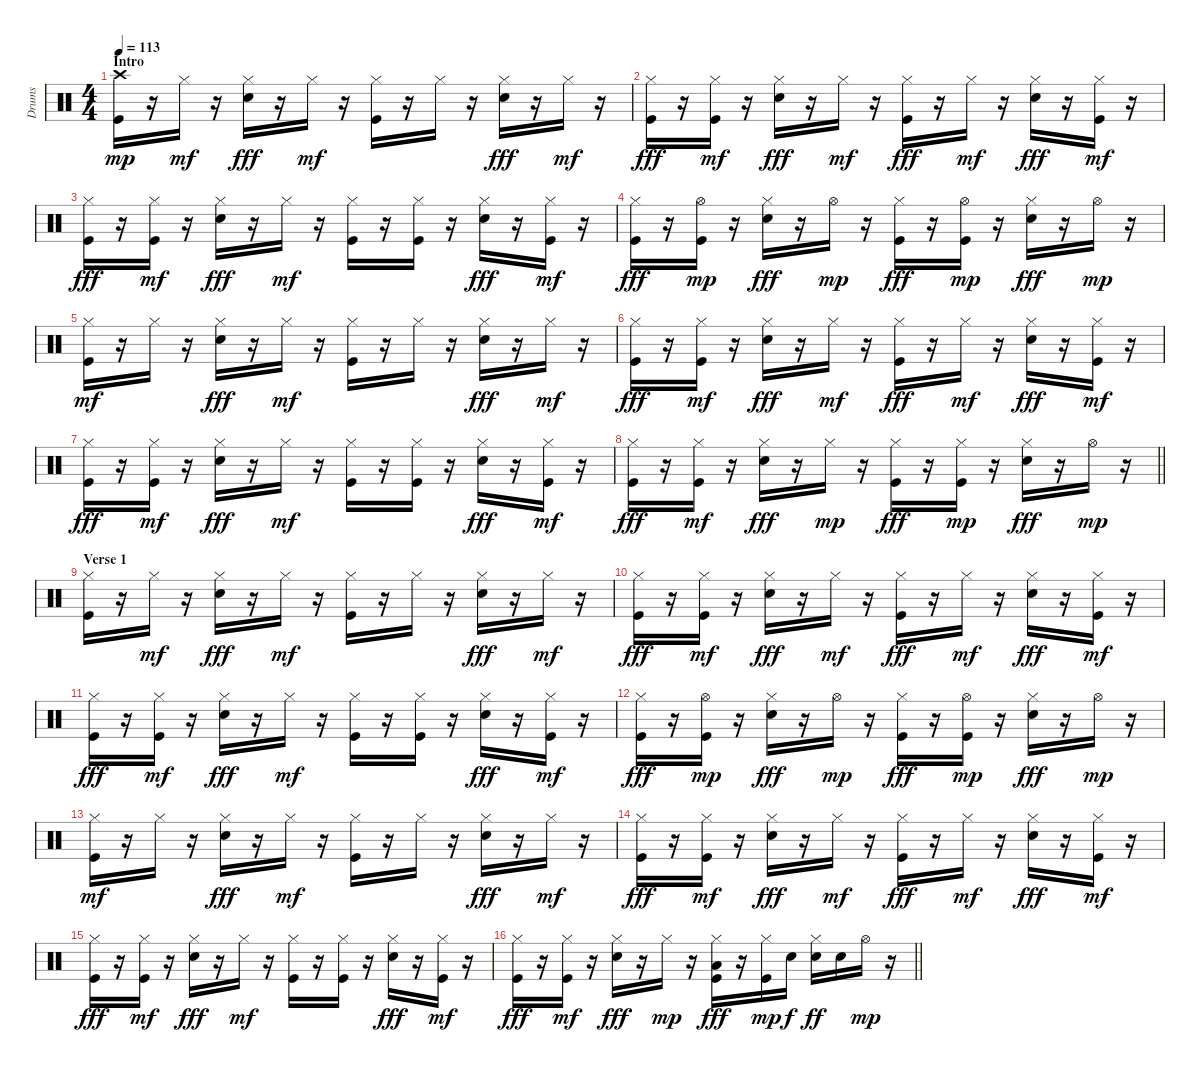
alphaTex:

\track ("Drums" "Drums") {instrument percussion}
\staff {score}
\articulation defaults
\ts (4 4)
\section ("" "Intro")
\tempo 113
\clef neutral
\ks c
("Kick (hit)" "Crash high (hit)").16{dy mp} r.16 "Hi-Hat (closed)".16{dy mf} r.16 ("Electric Snare (hit)" "Hi-Hat (closed)").16{dy fff} r.16 "Hi-Hat (closed)".16{dy mf} r.16 ("Kick (hit)" "Hi-Hat (closed)").16 r.16 "Hi-Hat (closed)".16 r.16 ("Electric Snare (hit)" "Hi-Hat (closed)").16{dy fff} r.16 "Hi-Hat (closed)".16{dy mf} r.16 |
("Kick (hit)" "Hi-Hat (closed)").16{dy fff} r.16 ("Kick (hit)" "Hi-Hat (closed)").16{dy mf} r.16 ("Electric Snare (hit)" "Hi-Hat (closed)").16{dy fff} r.16 "Hi-Hat (closed)".16{dy mf} r.16 ("Kick (hit)" "Hi-Hat (closed)").16{dy fff} r.16 "Hi-Hat (closed)".16{dy mf} r.16 ("Electric Snare (hit)" "Hi-Hat (closed)").16{dy fff} r.16 ("Kick (hit)" "Hi-Hat (closed)").16{dy mf} r.16 |
("Kick (hit)" "Hi-Hat (closed)").16{dy fff} r.16 ("Kick (hit)" "Hi-Hat (closed)").16{dy mf} r.16 ("Electric Snare (hit)" "Hi-Hat (closed)").16{dy fff} r.16 "Hi-Hat (closed)".16{dy mf} r.16 ("Kick (hit)" "Hi-Hat (closed)").16 r.16 ("Kick (hit)" "Hi-Hat (closed)").16 r.16 ("Electric Snare (hit)" "Hi-Hat (closed)").16{dy fff} r.16 ("Kick (hit)" "Hi-Hat (closed)").16{dy mf} r.16 |
("Kick (hit)" "Hi-Hat (closed)").16{dy fff} r.16 ("Kick (hit)" "Hi-Hat (open)").16{dy mp} r.16 ("Electric Snare (hit)" "Hi-Hat (closed)").16{dy fff} r.16 "Hi-Hat (open)".16{dy mp} r.16 ("Kick (hit)" "Hi-Hat (closed)").16{dy fff} r.16 ("Kick (hit)" "Hi-Hat (open)").16{dy mp} r.16 ("Electric Snare (hit)" "Hi-Hat (closed)").16{dy fff} r.16 "Hi-Hat (open)".16{dy mp} r.16 |
("Kick (hit)" "Hi-Hat (closed)").16{dy mf} r.16 "Hi-Hat (closed)".16 r.16 ("Electric Snare (hit)" "Hi-Hat (closed)").16{dy fff} r.16 "Hi-Hat (closed)".16{dy mf} r.16 ("Kick (hit)" "Hi-Hat (closed)").16 r.16 "Hi-Hat (closed)".16 r.16 ("Electric Snare (hit)" "Hi-Hat (closed)").16{dy fff} r.16 "Hi-Hat (closed)".16{dy mf} r.16 |
("Kick (hit)" "Hi-Hat (closed)").16{dy fff} r.16 ("Kick (hit)" "Hi-Hat (closed)").16{dy mf} r.16 ("Electric Snare (hit)" "Hi-Hat (closed)").16{dy fff} r.16 "Hi-Hat (closed)".16{dy mf} r.16 ("Kick (hit)" "Hi-Hat (closed)").16{dy fff} r.16 "Hi-Hat (closed)".16{dy mf} r.16 ("Electric Snare (hit)" "Hi-Hat (closed)").16{dy fff} r.16 ("Kick (hit)" "Hi-Hat (closed)").16{dy mf} r.16 |
("Kick (hit)" "Hi-Hat (closed)").16{dy fff} r.16 ("Kick (hit)" "Hi-Hat (closed)").16{dy mf} r.16 ("Electric Snare (hit)" "Hi-Hat (closed)").16{dy fff} r.16 "Hi-Hat (closed)".16{dy mf} r.16 ("Kick (hit)" "Hi-Hat (closed)").16 r.16 ("Kick (hit)" "Hi-Hat (closed)").16 r.16 ("Electric Snare (hit)" "Hi-Hat (closed)").16{dy fff} r.16 ("Kick (hit)" "Hi-Hat (closed)").16{dy mf} r.16 |
\barLineRight lightlight
("Kick (hit)" "Hi-Hat (closed)").16{dy fff} r.16 ("Kick (hit)" "Hi-Hat (closed)").16{dy mf} r.16 ("Electric Snare (hit)" "Hi-Hat (closed)").16{dy fff} r.16 "Hi-Hat (closed)".16{dy mp} r.16 ("Kick (hit)" "Hi-Hat (closed)").16{dy fff} r.16 ("Kick (hit)" "Hi-Hat (closed)").16{dy mp} r.16 ("Electric Snare (hit)" "Hi-Hat (closed)").16{dy fff} r.16 "Hi-Hat (open)".16{dy mp} r.16 |
\section ("" "Verse 1")
("Kick (hit)" "Hi-Hat (closed)").16 r.16 "Hi-Hat (closed)".16{dy mf} r.16 ("Electric Snare (hit)" "Hi-Hat (closed)").16{dy fff} r.16 "Hi-Hat (closed)".16{dy mf} r.16 ("Kick (hit)" "Hi-Hat (closed)").16 r.16 "Hi-Hat (closed)".16 r.16 ("Electric Snare (hit)" "Hi-Hat (closed)").16{dy fff} r.16 "Hi-Hat (closed)".16{dy mf} r.16 |
("Kick (hit)" "Hi-Hat (closed)").16{dy fff} r.16 ("Kick (hit)" "Hi-Hat (closed)").16{dy mf} r.16 ("Electric Snare (hit)" "Hi-Hat (closed)").16{dy fff} r.16 "Hi-Hat (closed)".16{dy mf} r.16 ("Kick (hit)" "Hi-Hat (closed)").16{dy fff} r.16 "Hi-Hat (closed)".16{dy mf} r.16 ("Electric Snare (hit)" "Hi-Hat (closed)").16{dy fff} r.16 ("Kick (hit)" "Hi-Hat (closed)").16{dy mf} r.16 |
("Kick (hit)" "Hi-Hat (closed)").16{dy fff} r.16 ("Kick (hit)" "Hi-Hat (closed)").16{dy mf} r.16 ("Electric Snare (hit)" "Hi-Hat (closed)").16{dy fff} r.16 "Hi-Hat (closed)".16{dy mf} r.16 ("Kick (hit)" "Hi-Hat (closed)").16 r.16 ("Kick (hit)" "Hi-Hat (closed)").16 r.16 ("Electric Snare (hit)" "Hi-Hat (closed)").16{dy fff} r.16 ("Kick (hit)" "Hi-Hat (closed)").16{dy mf} r.16 |
("Kick (hit)" "Hi-Hat (closed)").16{dy fff} r.16 ("Kick (hit)" "Hi-Hat (open)").16{dy mp} r.16 ("Electric Snare (hit)" "Hi-Hat (closed)").16{dy fff} r.16 "Hi-Hat (open)".16{dy mp} r.16 ("Kick (hit)" "Hi-Hat (closed)").16{dy fff} r.16 ("Kick (hit)" "Hi-Hat (open)").16{dy mp} r.16 ("Electric Snare (hit)" "Hi-Hat (closed)").16{dy fff} r.16 "Hi-Hat (open)".16{dy mp} r.16 |
("Kick (hit)" "Hi-Hat (closed)").16{dy mf} r.16 "Hi-Hat (closed)".16 r.16 ("Electric Snare (hit)" "Hi-Hat (closed)").16{dy fff} r.16 "Hi-Hat (closed)".16{dy mf} r.16 ("Kick (hit)" "Hi-Hat (closed)").16 r.16 "Hi-Hat (closed)".16 r.16 ("Electric Snare (hit)" "Hi-Hat (closed)").16{dy fff} r.16 "Hi-Hat (closed)".16{dy mf} r.16 |
("Kick (hit)" "Hi-Hat (closed)").16{dy fff} r.16 ("Kick (hit)" "Hi-Hat (closed)").16{dy mf} r.16 ("Electric Snare (hit)" "Hi-Hat (closed)").16{dy fff} r.16 "Hi-Hat (closed)".16{dy mf} r.16 ("Kick (hit)" "Hi-Hat (closed)").16{dy fff} r.16 "Hi-Hat (closed)".16{dy mf} r.16 ("Electric Snare (hit)" "Hi-Hat (closed)").16{dy fff} r.16 ("Kick (hit)" "Hi-Hat (closed)").16{dy mf} r.16 |
("Kick (hit)" "Hi-Hat (closed)").16{dy fff} r.16 ("Kick (hit)" "Hi-Hat (closed)").16{dy mf} r.16 ("Electric Snare (hit)" "Hi-Hat (closed)").16{dy fff} r.16 "Hi-Hat (closed)".16{dy mf} r.16 ("Kick (hit)" "Hi-Hat (closed)").16 r.16 ("Kick (hit)" "Hi-Hat (closed)").16 r.16 ("Electric Snare (hit)" "Hi-Hat (closed)").16{dy fff} r.16 ("Kick (hit)" "Hi-Hat (closed)").16{dy mf} r.16 |
\barLineRight lightlight
("Kick (hit)" "Hi-Hat (closed)").16{dy fff} r.16 ("Kick (hit)" "Hi-Hat (closed)").16{dy mf} r.16 ("Electric Snare (hit)" "Hi-Hat (closed)").16{dy fff} r.16 "Hi-Hat (closed)".16{dy mp} r.16 ("Kick (hit)" "Hi-Hat (closed)" "Low Tom (hit)").16{dy fff} r.16 ("Kick (hit)" "Hi-Hat (closed)").16{dy mp} "Electric Snare (hit)".16{dy f} ("Electric Snare (hit)" "Hi-Hat (closed)").16{dy ff} "Electric Snare (hit)".16 "Hi-Hat (open)".16{dy mp} r.16
